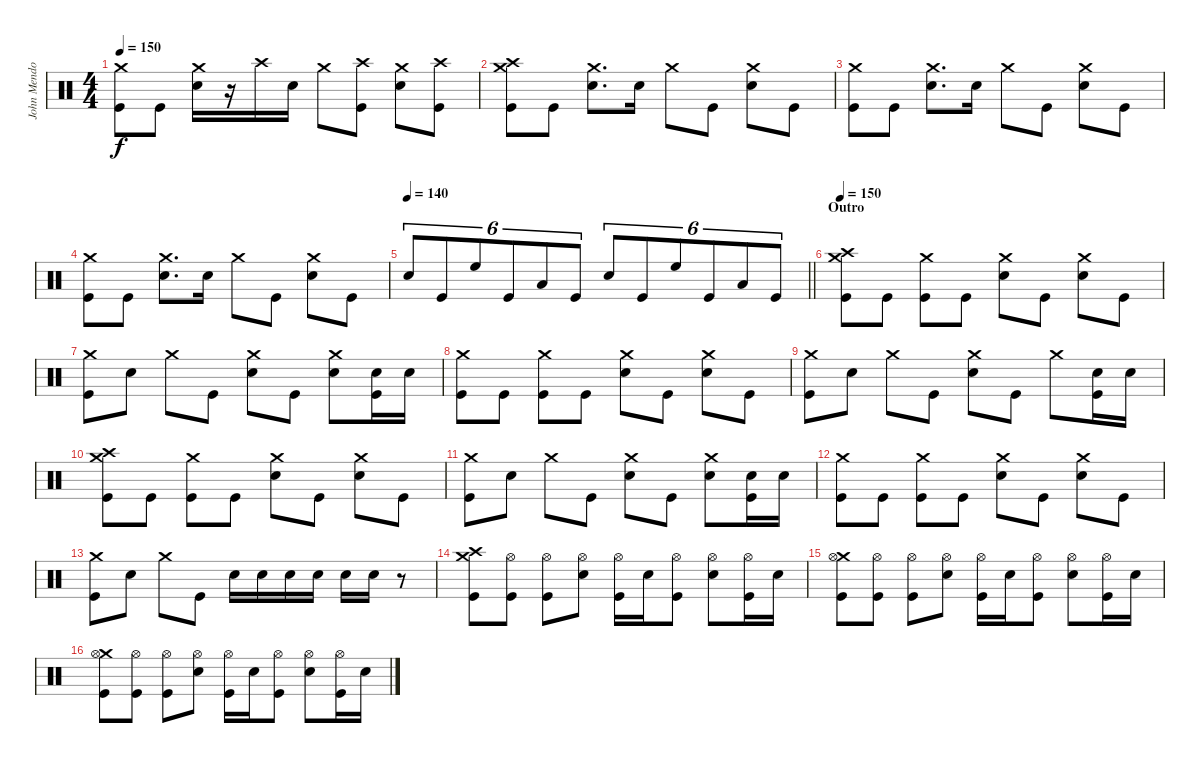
\track ("John Mendoza" "John Mendo") {instrument percussion}
\staff {score}
\articulation defaults
\ts (4 4)
\tempo 150
\clef neutral
\ks c
("Crash medium (hit)" "Kick (hit)").8{dy f} "Kick (hit)".8 ("Crash medium (hit)" "Snare (hit) 2").16 r.16 "Crash high (hit)".16 "Snare (hit) 2".16 "Crash medium (hit)".8 ("Crash high (hit)" "Kick (hit)").8 ("Crash medium (hit)" "Snare (hit) 2").8 ("Crash high (hit)" "Kick (hit)").8 |
("Crash medium (hit)" "Crash high (hit)" "Kick (hit)").8 "Kick (hit)".8 ("Crash medium (hit)" "Snare (hit) 2").8{d} "Snare (hit) 2".16 "Crash medium (hit)".8 "Kick (hit)".8 ("Crash medium (hit)" "Snare (hit) 2").8 "Kick (hit)".8 |
("Crash medium (hit)" "Kick (hit)").8 "Kick (hit)".8 ("Crash medium (hit)" "Snare (hit) 2").8{d} "Snare (hit) 2".16 "Crash medium (hit)".8 "Kick (hit)".8 ("Crash medium (hit)" "Snare (hit) 2").8 "Kick (hit)".8 |
("Crash medium (hit)" "Kick (hit)").8 "Kick (hit)".8 ("Crash medium (hit)" "Snare (hit) 2").8{d} "Snare (hit) 2".16 "Crash medium (hit)".8 "Kick (hit)".8 ("Crash medium (hit)" "Snare (hit) 2").8 "Kick (hit)".8 |
\tempo 140
\barLineRight lightlight "Snare (hit) 2".8{tu (6 4)} "Kick (hit)".8{tu (6 4)} "High Floor Tom (hit)".8{tu (6 4)} "Kick (hit)".8{tu (6 4)} "Low Tom (hit)".8{tu (6 4)} "Kick (hit)".8{tu (6 4)} "Snare (hit) 2".8{tu (6 4)} "Kick (hit)".8{tu (6 4)} "High Floor Tom (hit)".8{tu (6 4)} "Kick (hit)".8{tu (6 4)} "Low Tom (hit)".8{tu (6 4)} "Kick (hit)".8{tu (6 4)}
|
\section ("" "Outro")
\tempo 150
("Crash medium (hit)" "Crash high (hit)" "Kick (hit)").8 "Kick (hit)".8 ("Crash medium (hit)" "Kick (hit)").8 "Kick (hit)".8 ("Crash medium (hit)" "Snare (hit) 2").8 "Kick (hit)".8 ("Crash medium (hit)" "Snare (hit) 2").8 "Kick (hit)".8 |
("Crash medium (hit)" "Kick (hit)").8 "Snare (hit) 2".8 "Crash medium (hit)".8 "Kick (hit)".8 ("Crash medium (hit)" "Snare (hit) 2").8 "Kick (hit)".8 ("Crash medium (hit)" "Snare (hit) 2").8 ("Snare (hit) 2" "Kick (hit)").16 "Snare (hit) 2".16 |
("Crash medium (hit)" "Kick (hit)").8 "Kick (hit)".8 ("Crash medium (hit)" "Kick (hit)").8 "Kick (hit)".8 ("Crash medium (hit)" "Snare (hit) 2").8 "Kick (hit)".8 ("Crash medium (hit)" "Snare (hit) 2").8 "Kick (hit)".8 |
("Crash medium (hit)" "Kick (hit)").8 "Snare (hit) 2".8 "Crash medium (hit)".8 "Kick (hit)".8 ("Crash medium (hit)" "Snare (hit) 2").8 "Kick (hit)".8 "Crash medium (hit)".8 ("Snare (hit) 2" "Kick (hit)").16 "Snare (hit) 2".16 |
("Crash medium (hit)" "Crash high (hit)" "Kick (hit)").8 "Kick (hit)".8 ("Crash medium (hit)" "Kick (hit)").8 "Kick (hit)".8 ("Crash medium (hit)" "Snare (hit) 2").8 "Kick (hit)".8 ("Crash medium (hit)" "Snare (hit) 2").8 "Kick (hit)".8 |
("Crash medium (hit)" "Kick (hit)").8 "Snare (hit) 2".8 "Crash medium (hit)".8 "Kick (hit)".8 ("Crash medium (hit)" "Snare (hit) 2").8 "Kick (hit)".8 ("Crash medium (hit)" "Snare (hit) 2").8 ("Snare (hit) 2" "Kick (hit)").16 "Snare (hit) 2".16 |
("Crash medium (hit)" "Kick (hit)").8 "Kick (hit)".8 ("Crash medium (hit)" "Kick (hit)").8 "Kick (hit)".8 ("Crash medium (hit)" "Snare (hit) 2").8 "Kick (hit)".8 ("Crash medium (hit)" "Snare (hit) 2").8 "Kick (hit)".8 |
("Crash medium (hit)" "Kick (hit)").8 "Snare (hit) 2".8 "Crash medium (hit)".8 "Kick (hit)".8 "Snare (hit) 2".16 "Snare (hit) 2".16 "Snare (hit) 2".16 "Snare (hit) 2".16 "Snare (hit) 2".16 "Snare (hit) 2".16 r.8 |
("Crash medium (hit)" "Crash high (hit)" "Kick (hit)").8 ("Hi-Hat (open)" "Kick (hit)").8 ("Hi-Hat (open)" "Kick (hit)").8 ("Hi-Hat (open)" "Snare (hit) 2").8 ("Hi-Hat (open)" "Kick (hit)").16 "Snare (hit) 2".16 ("Hi-Hat (open)" "Kick (hit)").8 ("Hi-Hat (open)" "Snare (hit) 2").8 ("Hi-Hat (open)" "Kick (hit)").16 "Snare (hit) 2".16 |
("Crash medium (hit)" "Hi-Hat (open)" "Kick (hit)").8 ("Hi-Hat (open)" "Kick (hit)").8 ("Hi-Hat (open)" "Kick (hit)").8 ("Hi-Hat (open)" "Snare (hit) 2").8 ("Hi-Hat (open)" "Kick (hit)").16 "Snare (hit) 2".16 ("Hi-Hat (open)" "Kick (hit)").8 ("Hi-Hat (open)" "Snare (hit) 2").8 ("Hi-Hat (open)" "Kick (hit)").16 "Snare (hit) 2".16 |
("Crash medium (hit)" "Hi-Hat (open)" "Kick (hit)").8 ("Hi-Hat (open)" "Kick (hit)").8 ("Hi-Hat (open)" "Kick (hit)").8 ("Hi-Hat (open)" "Snare (hit) 2").8 ("Hi-Hat (open)" "Kick (hit)").16 "Snare (hit) 2".16 ("Hi-Hat (open)" "Kick (hit)").8 ("Hi-Hat (open)" "Snare (hit) 2").8 ("Hi-Hat (open)" "Kick (hit)").16 "Snare (hit) 2".16
